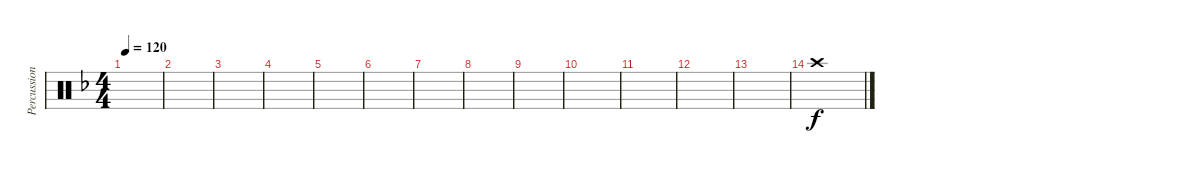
\track ("Percussion" "Percussion") {instrument percussion}
\staff {score}
\articulation defaults
\ts (4 4)
\tempo 120
\clef neutral
\ks dminor
|
|
|
|
|
|
|
|
|
|
|
|
|
"Crash high (hit)".1
